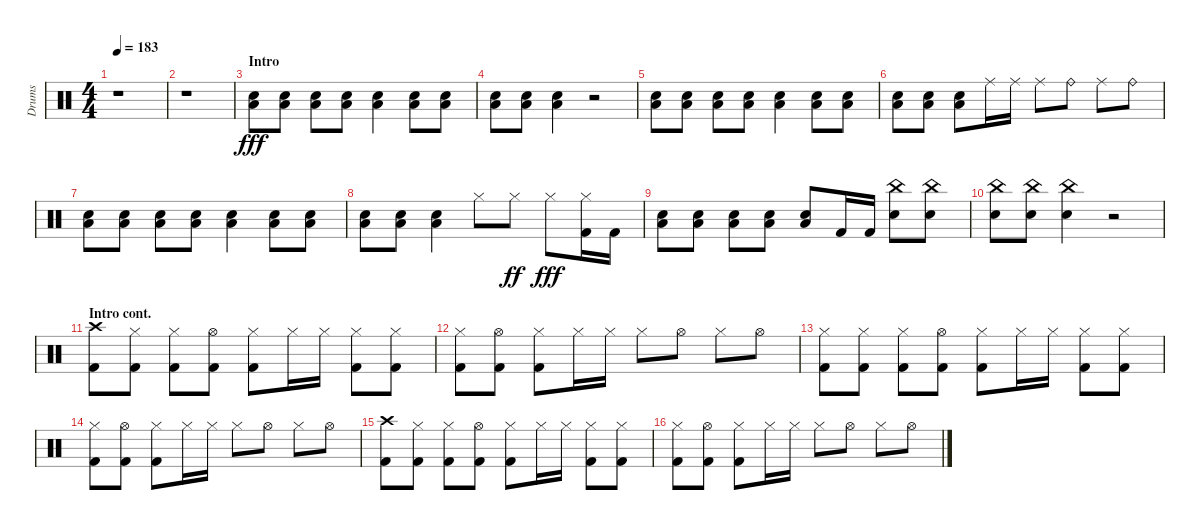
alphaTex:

\track ("Drums" "Drums") {instrument percussion}
\staff {score}
\articulation defaults
\ts (4 4)
\tempo 183
\clef neutral
\ks aminor
r.1{dy fff} |
r.1 |
\section ("" "Intro")
("Snare (hit) 2" "Low Floor Tom (hit)").8 ("Snare (hit) 2" "Low Floor Tom (hit)").8 ("Snare (hit) 2" "Low Floor Tom (hit)").8 ("Snare (hit) 2" "Low Floor Tom (hit)").8 ("Snare (hit) 2" "Low Floor Tom (hit)").4 ("Snare (hit) 2" "Low Floor Tom (hit)").8 ("Snare (hit) 2" "Low Floor Tom (hit)").8 |
("Snare (hit) 2" "Low Floor Tom (hit)").8 ("Snare (hit) 2" "Low Floor Tom (hit)").8 ("Snare (hit) 2" "Low Floor Tom (hit)").4 r.2 |
("Snare (hit) 2" "Low Floor Tom (hit)").8 ("Snare (hit) 2" "Low Floor Tom (hit)").8 ("Snare (hit) 2" "Low Floor Tom (hit)").8 ("Snare (hit) 2" "Low Floor Tom (hit)").8 ("Snare (hit) 2" "Low Floor Tom (hit)").4 ("Snare (hit) 2" "Low Floor Tom (hit)").8 ("Snare (hit) 2" "Low Floor Tom (hit)").8 |
("Snare (hit) 2" "Low Floor Tom (hit)").8 ("Snare (hit) 2" "Low Floor Tom (hit)").8 ("Snare (hit) 2" "Low Floor Tom (hit)").8 "Ride (middle)".16 "Ride (middle)".16 "Ride (middle)".8 "Ride (bell)".8 "Ride (middle)".8 "Ride (bell)".8 |
("Snare (hit) 2" "Low Floor Tom (hit)").8 ("Snare (hit) 2" "Low Floor Tom (hit)").8 ("Snare (hit) 2" "Low Floor Tom (hit)").8 ("Snare (hit) 2" "Low Floor Tom (hit)").8 ("Snare (hit) 2" "Low Floor Tom (hit)").4 ("Snare (hit) 2" "Low Floor Tom (hit)").8 ("Snare (hit) 2" "Low Floor Tom (hit)").8 |
("Snare (hit) 2" "Low Floor Tom (hit)").8 ("Snare (hit) 2" "Low Floor Tom (hit)").8 ("Snare (hit) 2" "Low Floor Tom (hit)").4 "Hi-Hat (closed)".8 "Hi-Hat (closed)".8{dy ff} "Hi-Hat (closed)".8{dy fff} ("Kick (hit) 2" "Hi-Hat (closed)").16 "Kick (hit) 2".16 |
("Snare (hit) 2" "Low Floor Tom (hit)").8 ("Snare (hit) 2" "Low Floor Tom (hit)").8 ("Snare (hit) 2" "Low Floor Tom (hit)").8 ("Snare (hit) 2" "Low Floor Tom (hit)").8 ("Snare (hit) 2" "Low Floor Tom (hit)").8 "Kick (hit) 2".16 "Kick (hit) 2".16 ("Snare (hit) 2" "China (hit)").8 ("Snare (hit) 2" "China (hit)").8 |
("Snare (hit) 2" "China (hit)").8 ("Snare (hit) 2" "China (hit)").8 ("Snare (hit) 2" "China (hit)").4 r.2 |
\section ("" "Intro cont.")
("Kick (hit) 2" "Crash high (hit)").8 ("Kick (hit) 2" "Hi-Hat (closed)").8 ("Kick (hit) 2" "Hi-Hat (closed)").8 ("Kick (hit) 2" "Hi-Hat (open)").8 ("Kick (hit) 2" "Hi-Hat (closed)").8 "Hi-Hat (closed)".16 "Hi-Hat (closed)".16 ("Kick (hit) 2" "Hi-Hat (closed)").8 ("Kick (hit) 2" "Hi-Hat (closed)").8 |
("Kick (hit) 2" "Hi-Hat (closed)").8 ("Kick (hit) 2" "Hi-Hat (open)").8 ("Kick (hit) 2" "Hi-Hat (closed)").8 "Hi-Hat (closed)".16 "Hi-Hat (closed)".16 "Hi-Hat (closed)".8 "Hi-Hat (open)".8 "Hi-Hat (closed)".8 "Hi-Hat (open)".8 |
("Kick (hit) 2" "Hi-Hat (closed)").8 ("Kick (hit) 2" "Hi-Hat (closed)").8 ("Kick (hit) 2" "Hi-Hat (closed)").8 ("Kick (hit) 2" "Hi-Hat (open)").8 ("Kick (hit) 2" "Hi-Hat (closed)").8 "Hi-Hat (closed)".16 "Hi-Hat (closed)".16 ("Kick (hit) 2" "Hi-Hat (closed)").8 ("Kick (hit) 2" "Hi-Hat (closed)").8 |
("Kick (hit) 2" "Hi-Hat (closed)").8 ("Kick (hit) 2" "Hi-Hat (open)").8 ("Kick (hit) 2" "Hi-Hat (closed)").8 "Hi-Hat (closed)".16 "Hi-Hat (closed)".16 "Hi-Hat (closed)".8 "Hi-Hat (open)".8 "Hi-Hat (closed)".8 "Hi-Hat (open)".8 |
("Kick (hit) 2" "Crash high (hit)").8 ("Kick (hit) 2" "Hi-Hat (closed)").8 ("Kick (hit) 2" "Hi-Hat (closed)").8 ("Kick (hit) 2" "Hi-Hat (open)").8 ("Kick (hit) 2" "Hi-Hat (closed)").8 "Hi-Hat (closed)".16 "Hi-Hat (closed)".16 ("Kick (hit) 2" "Hi-Hat (closed)").8 ("Kick (hit) 2" "Hi-Hat (closed)").8 |
("Kick (hit) 2" "Hi-Hat (closed)").8 ("Kick (hit) 2" "Hi-Hat (open)").8 ("Kick (hit) 2" "Hi-Hat (closed)").8 "Hi-Hat (closed)".16 "Hi-Hat (closed)".16 "Hi-Hat (closed)".8 "Hi-Hat (open)".8 "Hi-Hat (closed)".8 "Hi-Hat (open)".8
